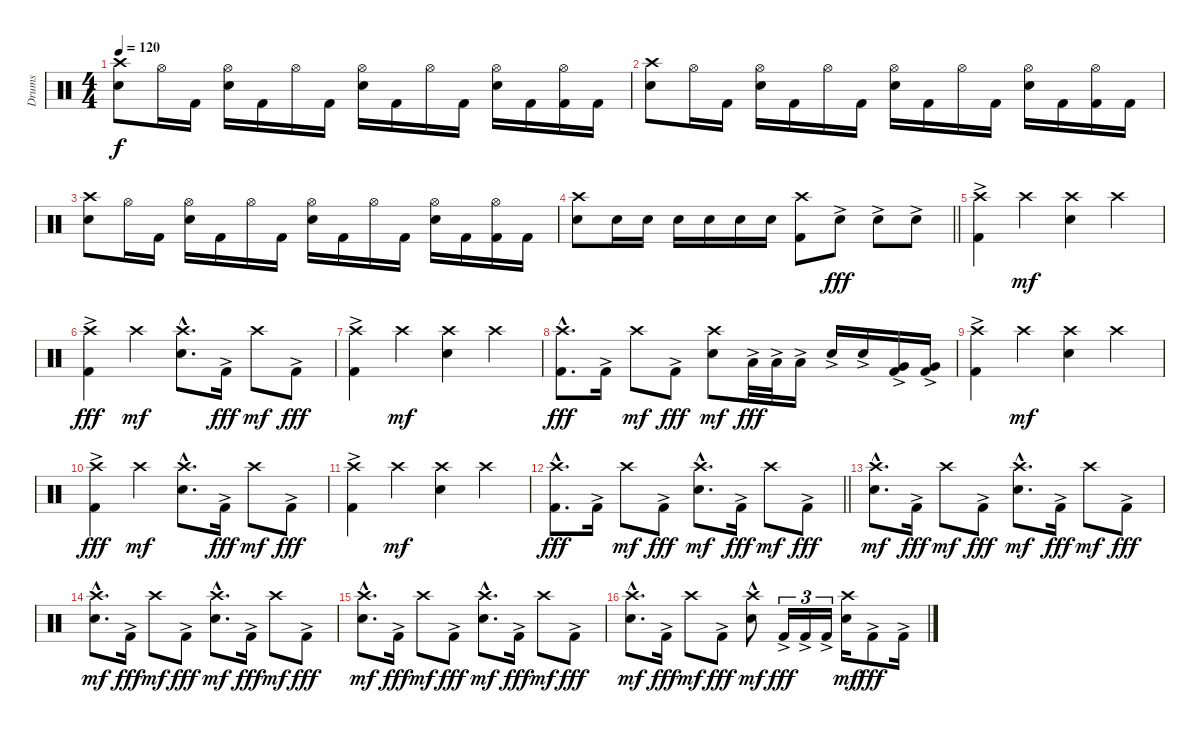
\track ("Drums" "Drums") {instrument percussion}
\staff {score}
\articulation defaults
\ts (4 4)
\tempo 120
\clef neutral
\ks c
("Crash high (hit)" "Snare (hit) 2").8{dy f} "Hi-Hat (open)".16 "Kick (hit) 2".16 ("Hi-Hat (open)" "Snare (hit) 2").16 "Kick (hit) 2".16 "Hi-Hat (open)".16 "Kick (hit) 2".16 ("Hi-Hat (open)" "Snare (hit) 2").16 "Kick (hit) 2".16 "Hi-Hat (open)".16 "Kick (hit) 2".16 ("Hi-Hat (open)" "Snare (hit) 2").16 "Kick (hit) 2".16 ("Hi-Hat (open)" "Kick (hit) 2").16 "Kick (hit) 2".16 |
("Crash high (hit)" "Snare (hit) 2").8 "Hi-Hat (open)".16 "Kick (hit) 2".16 ("Hi-Hat (open)" "Snare (hit) 2").16 "Kick (hit) 2".16 "Hi-Hat (open)".16 "Kick (hit) 2".16 ("Hi-Hat (open)" "Snare (hit) 2").16 "Kick (hit) 2".16 "Hi-Hat (open)".16 "Kick (hit) 2".16 ("Hi-Hat (open)" "Snare (hit) 2").16 "Kick (hit) 2".16 ("Hi-Hat (open)" "Kick (hit) 2").16 "Kick (hit) 2".16 |
("Crash high (hit)" "Snare (hit) 2").8 "Hi-Hat (open)".16 "Kick (hit) 2".16 ("Hi-Hat (open)" "Snare (hit) 2").16 "Kick (hit) 2".16 "Hi-Hat (open)".16 "Kick (hit) 2".16 ("Hi-Hat (open)" "Snare (hit) 2").16 "Kick (hit) 2".16 "Hi-Hat (open)".16 "Kick (hit) 2".16 ("Hi-Hat (open)" "Snare (hit) 2").16 "Kick (hit) 2".16 ("Hi-Hat (open)" "Kick (hit) 2").16 "Kick (hit) 2".16 |
\barLineRight lightlight
("Crash high (hit)" "Snare (hit) 2").8 "Snare (hit) 2".16 "Snare (hit) 2".16 "Snare (hit) 2".16 "Snare (hit) 2".16 "Snare (hit) 2".16 "Snare (hit) 2".16 ("Crash high (hit)" "Kick (hit) 2").8 "Snare (hit) 2"{ac}.8{dy fff} "Snare (hit) 2"{ac}.8 "Snare (hit) 2"{ac}.8 |
("Crash high (hit)"{ac} "Kick (hit) 2"{ac}).4 "Crash high (hit)".4{dy mf} ("Crash high (hit)" "Snare (hit) 2").4 "Crash high (hit)".4 |
("Crash high (hit)" "Kick (hit) 2"{ac}).4{dy fff} "Crash high (hit)".4{dy mf} ("Crash high (hit)"{hac} "Snare (hit) 2"{hac}).8{d} "Kick (hit) 2"{ac}.16{dy fff} "Crash high (hit)".8{dy mf} "Kick (hit) 2"{ac}.8{dy fff} |
("Crash high (hit)" "Kick (hit) 2"{ac}).4 "Crash high (hit)".4{dy mf} ("Crash high (hit)" "Snare (hit) 2").4 "Crash high (hit)".4 |
("Crash high (hit)"{hac} "Kick (hit) 2"{hac}).8{d dy fff} "Kick (hit) 2"{ac}.16 "Crash high (hit)".8{dy mf} "Kick (hit) 2"{ac}.8{dy fff} ("Crash high (hit)" "Snare (hit) 2").8{dy mf} "Low Tom (hit)"{ac}.32{dy fff} "Low Tom (hit)"{ac}.32 "Low Tom (hit)"{ac}.16 "Snare (hit) 2"{ac}.16 "Snare (hit) 2"{ac}.16 ("Very Low Tom (hit)"{ac} "Kick (hit) 2"{ac}).16 ("Very Low Tom (hit)"{ac} "Kick (hit) 2"{ac}).16 |
("Crash high (hit)"{ac} "Kick (hit) 2"{ac}).4 "Crash high (hit)".4{dy mf} ("Crash high (hit)" "Snare (hit) 2").4 "Crash high (hit)".4 |
("Crash high (hit)" "Kick (hit) 2"{ac}).4{dy fff} "Crash high (hit)".4{dy mf} ("Crash high (hit)"{hac} "Snare (hit) 2"{hac}).8{d} "Kick (hit) 2"{ac}.16{dy fff} "Crash high (hit)".8{dy mf} "Kick (hit) 2"{ac}.8{dy fff} |
("Crash high (hit)" "Kick (hit) 2"{ac}).4 "Crash high (hit)".4{dy mf} ("Crash high (hit)" "Snare (hit) 2").4 "Crash high (hit)".4 |
\barLineRight lightlight
("Crash high (hit)"{hac} "Kick (hit) 2"{hac}).8{d dy fff} "Kick (hit) 2"{ac}.16 "Crash high (hit)".8{dy mf} "Kick (hit) 2"{ac}.8{dy fff} ("Crash high (hit)"{hac} "Snare (hit) 2"{hac}).8{d dy mf} "Kick (hit) 2"{ac}.16{dy fff} "Crash high (hit)".8{dy mf} "Kick (hit) 2"{ac}.8{dy fff} |
("Crash high (hit)"{hac} "Snare (hit) 2"{hac}).8{d dy mf} "Kick (hit) 2"{ac}.16{dy fff} "Crash high (hit)".8{dy mf} "Kick (hit) 2"{ac}.8{dy fff} ("Crash high (hit)"{hac} "Snare (hit) 2"{hac}).8{d dy mf} "Kick (hit) 2"{ac}.16{dy fff} "Crash high (hit)".8{dy mf} "Kick (hit) 2"{ac}.8{dy fff} |
("Crash high (hit)"{hac} "Snare (hit) 2"{hac}).8{d dy mf} "Kick (hit) 2"{ac}.16{dy fff} "Crash high (hit)".8{dy mf} "Kick (hit) 2"{ac}.8{dy fff} ("Crash high (hit)"{hac} "Snare (hit) 2"{hac}).8{d dy mf} "Kick (hit) 2"{ac}.16{dy fff} "Crash high (hit)".8{dy mf} "Kick (hit) 2"{ac}.8{dy fff} |
("Crash high (hit)"{hac} "Snare (hit) 2"{hac}).8{d dy mf} "Kick (hit) 2"{ac}.16{dy fff} "Crash high (hit)".8{dy mf} "Kick (hit) 2"{ac}.8{dy fff} ("Crash high (hit)"{hac} "Snare (hit) 2"{hac}).8{d dy mf} "Kick (hit) 2"{ac}.16{dy fff} "Crash high (hit)".8{dy mf} "Kick (hit) 2"{ac}.8{dy fff} |
("Crash high (hit)"{hac} "Snare (hit) 2"{hac}).8{d dy mf} "Kick (hit) 2"{ac}.16{dy fff} "Crash high (hit)".8{dy mf} "Kick (hit) 2"{ac}.8{dy fff} ("Crash high (hit)"{hac} "Snare (hit) 2").8{dy mf} "Kick (hit) 2"{ac}.16{tu (3 2) dy fff} "Kick (hit) 2"{ac}.16{tu (3 2)} "Kick (hit) 2"{ac}.16{tu (3 2)} ("Crash high (hit)" "Snare (hit) 2").16{dy mf} "Kick (hit) 2"{ac}.8{dy fff} "Kick (hit) 2"{ac}.16
